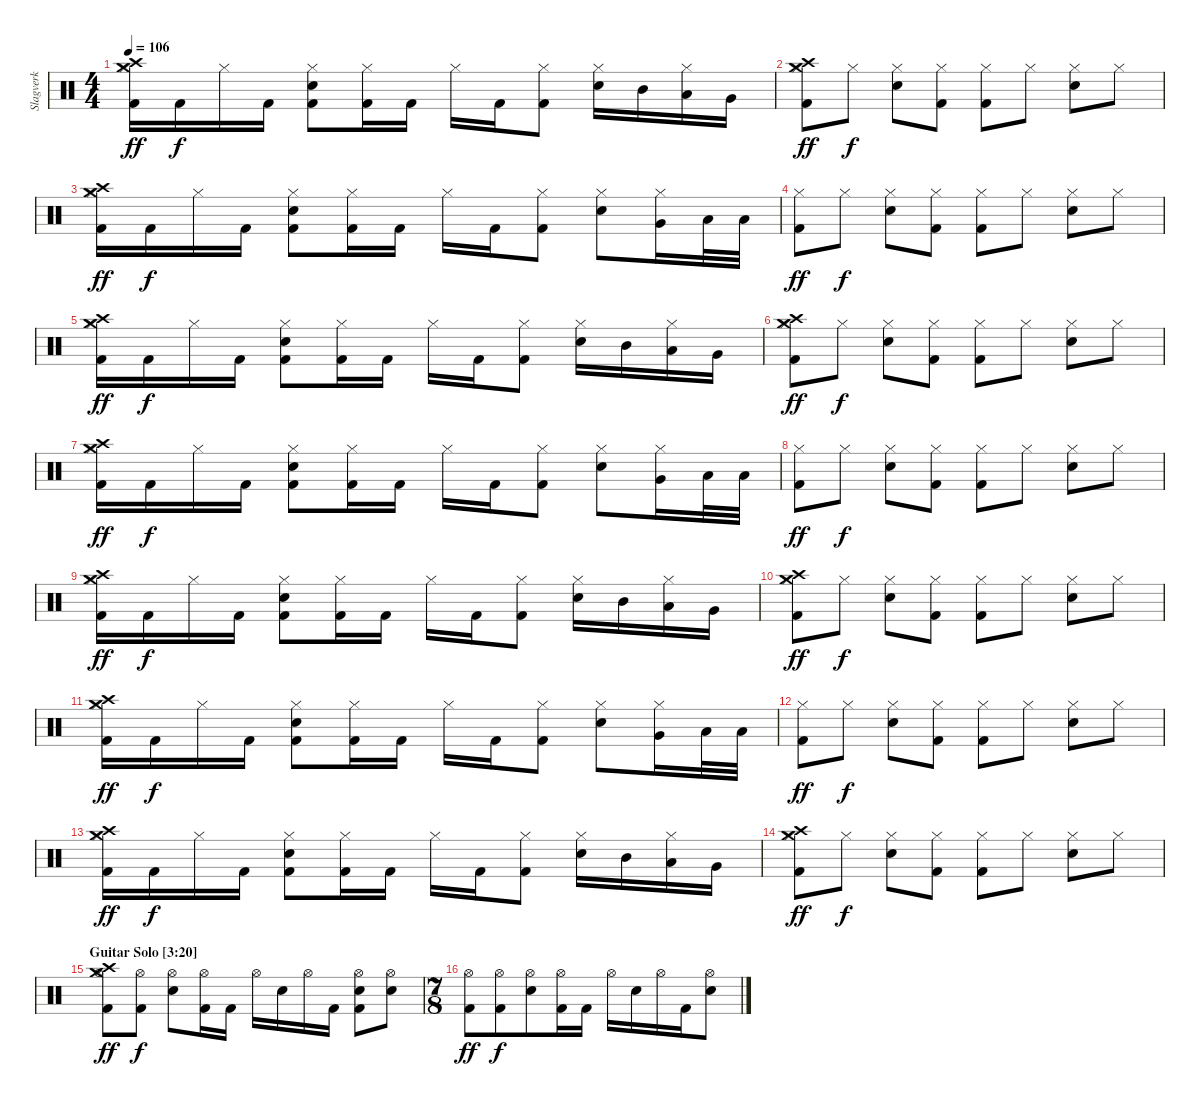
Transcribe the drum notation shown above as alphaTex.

\track ("Slagverk" "Slagverk") {instrument percussion}
\staff {score}
\articulation defaults
\ts (4 4)
\tempo 106
\clef neutral
\ks c
("Hi-Hat (closed)" "Crash medium (hit)" "Crash high (hit)" "Kick (hit) 2").16{dy ff} "Kick (hit) 2".16{dy f} "Hi-Hat (closed)".16 "Kick (hit) 2".16 ("Hi-Hat (closed)" "Electric Snare (hit)" "Kick (hit) 2").8 ("Hi-Hat (closed)" "Kick (hit) 2").16 "Kick (hit) 2".16 "Hi-Hat (closed)".16 "Kick (hit) 2".16 ("Hi-Hat (closed)" "Kick (hit) 2").8 ("Hi-Hat (closed)" "Electric Snare (hit)").16 "Mid Tom (hit)".16 ("Hi-Hat (closed)" "Low Tom (hit)").16 "Very Low Tom (hit)".16 |
("Hi-Hat (closed)" "Crash medium (hit)" "Crash high (hit)" "Kick (hit) 2").8{dy ff} "Hi-Hat (closed)".8{dy f} ("Hi-Hat (closed)" "Electric Snare (hit)").8 ("Hi-Hat (closed)" "Kick (hit) 2").8 ("Hi-Hat (closed)" "Kick (hit) 2").8 "Hi-Hat (closed)".8 ("Hi-Hat (closed)" "Electric Snare (hit)").8 "Hi-Hat (closed)".8 |
\section ("" "")
("Hi-Hat (closed)" "Crash medium (hit)" "Crash high (hit)" "Kick (hit) 2").16{dy ff} "Kick (hit) 2".16{dy f} "Hi-Hat (closed)".16 "Kick (hit) 2".16 ("Hi-Hat (closed)" "Electric Snare (hit)" "Kick (hit) 2").8 ("Hi-Hat (closed)" "Kick (hit) 2").16 "Kick (hit) 2".16 "Hi-Hat (closed)".16 "Kick (hit) 2".16 ("Hi-Hat (closed)" "Kick (hit) 2").8 ("Hi-Hat (closed)" "Electric Snare (hit)").8 ("Hi-Hat (closed)" "Very Low Tom (hit)").16 "Low Floor Tom (hit)".32 "Low Floor Tom (hit)".32 |
("Hi-Hat (closed)" "Kick (hit) 2").8{dy ff} "Hi-Hat (closed)".8{dy f} ("Hi-Hat (closed)" "Electric Snare (hit)").8 ("Hi-Hat (closed)" "Kick (hit) 2").8 ("Hi-Hat (closed)" "Kick (hit) 2").8 "Hi-Hat (closed)".8 ("Hi-Hat (closed)" "Electric Snare (hit)").8 "Hi-Hat (closed)".8 |
("Hi-Hat (closed)" "Crash medium (hit)" "Crash high (hit)" "Kick (hit) 2").16{dy ff} "Kick (hit) 2".16{dy f} "Hi-Hat (closed)".16 "Kick (hit) 2".16 ("Hi-Hat (closed)" "Electric Snare (hit)" "Kick (hit) 2").8 ("Hi-Hat (closed)" "Kick (hit) 2").16 "Kick (hit) 2".16 "Hi-Hat (closed)".16 "Kick (hit) 2".16 ("Hi-Hat (closed)" "Kick (hit) 2").8 ("Hi-Hat (closed)" "Electric Snare (hit)").16 "Mid Tom (hit)".16 ("Hi-Hat (closed)" "Low Tom (hit)").16 "Very Low Tom (hit)".16 |
("Hi-Hat (closed)" "Crash medium (hit)" "Crash high (hit)" "Kick (hit) 2").8{dy ff} "Hi-Hat (closed)".8{dy f} ("Hi-Hat (closed)" "Electric Snare (hit)").8 ("Hi-Hat (closed)" "Kick (hit) 2").8 ("Hi-Hat (closed)" "Kick (hit) 2").8 "Hi-Hat (closed)".8 ("Hi-Hat (closed)" "Electric Snare (hit)").8 "Hi-Hat (closed)".8 |
\section ("" "")
("Hi-Hat (closed)" "Crash medium (hit)" "Crash high (hit)" "Kick (hit) 2").16{dy ff} "Kick (hit) 2".16{dy f} "Hi-Hat (closed)".16 "Kick (hit) 2".16 ("Hi-Hat (closed)" "Electric Snare (hit)" "Kick (hit) 2").8 ("Hi-Hat (closed)" "Kick (hit) 2").16 "Kick (hit) 2".16 "Hi-Hat (closed)".16 "Kick (hit) 2".16 ("Hi-Hat (closed)" "Kick (hit) 2").8 ("Hi-Hat (closed)" "Electric Snare (hit)").8 ("Hi-Hat (closed)" "Very Low Tom (hit)").16 "Low Floor Tom (hit)".32 "Low Floor Tom (hit)".32 |
("Hi-Hat (closed)" "Kick (hit) 2").8{dy ff} "Hi-Hat (closed)".8{dy f} ("Hi-Hat (closed)" "Electric Snare (hit)").8 ("Hi-Hat (closed)" "Kick (hit) 2").8 ("Hi-Hat (closed)" "Kick (hit) 2").8 "Hi-Hat (closed)".8 ("Hi-Hat (closed)" "Electric Snare (hit)").8 "Hi-Hat (closed)".8 |
("Hi-Hat (closed)" "Crash medium (hit)" "Crash high (hit)" "Kick (hit) 2").16{dy ff} "Kick (hit) 2".16{dy f} "Hi-Hat (closed)".16 "Kick (hit) 2".16 ("Hi-Hat (closed)" "Electric Snare (hit)" "Kick (hit) 2").8 ("Hi-Hat (closed)" "Kick (hit) 2").16 "Kick (hit) 2".16 "Hi-Hat (closed)".16 "Kick (hit) 2".16 ("Hi-Hat (closed)" "Kick (hit) 2").8 ("Hi-Hat (closed)" "Electric Snare (hit)").16 "Mid Tom (hit)".16 ("Hi-Hat (closed)" "Low Tom (hit)").16 "Very Low Tom (hit)".16 |
("Hi-Hat (closed)" "Crash medium (hit)" "Crash high (hit)" "Kick (hit) 2").8{dy ff} "Hi-Hat (closed)".8{dy f} ("Hi-Hat (closed)" "Electric Snare (hit)").8 ("Hi-Hat (closed)" "Kick (hit) 2").8 ("Hi-Hat (closed)" "Kick (hit) 2").8 "Hi-Hat (closed)".8 ("Hi-Hat (closed)" "Electric Snare (hit)").8 "Hi-Hat (closed)".8 |
\section ("" "")
("Hi-Hat (closed)" "Crash medium (hit)" "Crash high (hit)" "Kick (hit) 2").16{dy ff} "Kick (hit) 2".16{dy f} "Hi-Hat (closed)".16 "Kick (hit) 2".16 ("Hi-Hat (closed)" "Electric Snare (hit)" "Kick (hit) 2").8 ("Hi-Hat (closed)" "Kick (hit) 2").16 "Kick (hit) 2".16 "Hi-Hat (closed)".16 "Kick (hit) 2".16 ("Hi-Hat (closed)" "Kick (hit) 2").8 ("Hi-Hat (closed)" "Electric Snare (hit)").8 ("Hi-Hat (closed)" "Very Low Tom (hit)").16 "Low Floor Tom (hit)".32 "Low Floor Tom (hit)".32 |
("Hi-Hat (closed)" "Kick (hit) 2").8{dy ff} "Hi-Hat (closed)".8{dy f} ("Hi-Hat (closed)" "Electric Snare (hit)").8 ("Hi-Hat (closed)" "Kick (hit) 2").8 ("Hi-Hat (closed)" "Kick (hit) 2").8 "Hi-Hat (closed)".8 ("Hi-Hat (closed)" "Electric Snare (hit)").8 "Hi-Hat (closed)".8 |
("Hi-Hat (closed)" "Crash medium (hit)" "Crash high (hit)" "Kick (hit) 2").16{dy ff} "Kick (hit) 2".16{dy f} "Hi-Hat (closed)".16 "Kick (hit) 2".16 ("Hi-Hat (closed)" "Electric Snare (hit)" "Kick (hit) 2").8 ("Hi-Hat (closed)" "Kick (hit) 2").16 "Kick (hit) 2".16 "Hi-Hat (closed)".16 "Kick (hit) 2".16 ("Hi-Hat (closed)" "Kick (hit) 2").8 ("Hi-Hat (closed)" "Electric Snare (hit)").16 "Mid Tom (hit)".16 ("Hi-Hat (closed)" "Low Tom (hit)").16 "Very Low Tom (hit)".16 |
("Hi-Hat (closed)" "Crash medium (hit)" "Crash high (hit)" "Kick (hit) 2").8{dy ff} "Hi-Hat (closed)".8{dy f} ("Hi-Hat (closed)" "Electric Snare (hit)").8 ("Hi-Hat (closed)" "Kick (hit) 2").8 ("Hi-Hat (closed)" "Kick (hit) 2").8 "Hi-Hat (closed)".8 ("Hi-Hat (closed)" "Electric Snare (hit)").8 "Hi-Hat (closed)".8 |
\section ("" "Guitar Solo [3:20]")
("Hi-Hat (open)" "Crash high (hit)" "Crash medium (hit)" "Kick (hit) 2").8{dy ff} ("Hi-Hat (open)" "Kick (hit) 2").8{dy f} ("Hi-Hat (open)" "Electric Snare (hit)").8 ("Hi-Hat (open)" "Kick (hit) 2").16 "Kick (hit) 2".16 "Hi-Hat (open)".16 "Electric Snare (hit)".16 "Hi-Hat (open)".16 "Kick (hit) 2".16 ("Hi-Hat (open)" "Electric Snare (hit)" "Kick (hit) 2").8 ("Hi-Hat (open)" "Electric Snare (hit)").8 |
\ts (7 8)
("Hi-Hat (open)" "Kick (hit) 2").8{dy ff} ("Hi-Hat (open)" "Kick (hit) 2").8{dy f} ("Hi-Hat (open)" "Electric Snare (hit)").8 ("Hi-Hat (open)" "Kick (hit) 2").16 "Kick (hit) 2".16 "Hi-Hat (open)".16 "Electric Snare (hit)".16 "Hi-Hat (open)".16 "Kick (hit) 2".16 ("Hi-Hat (open)" "Electric Snare (hit)").8
